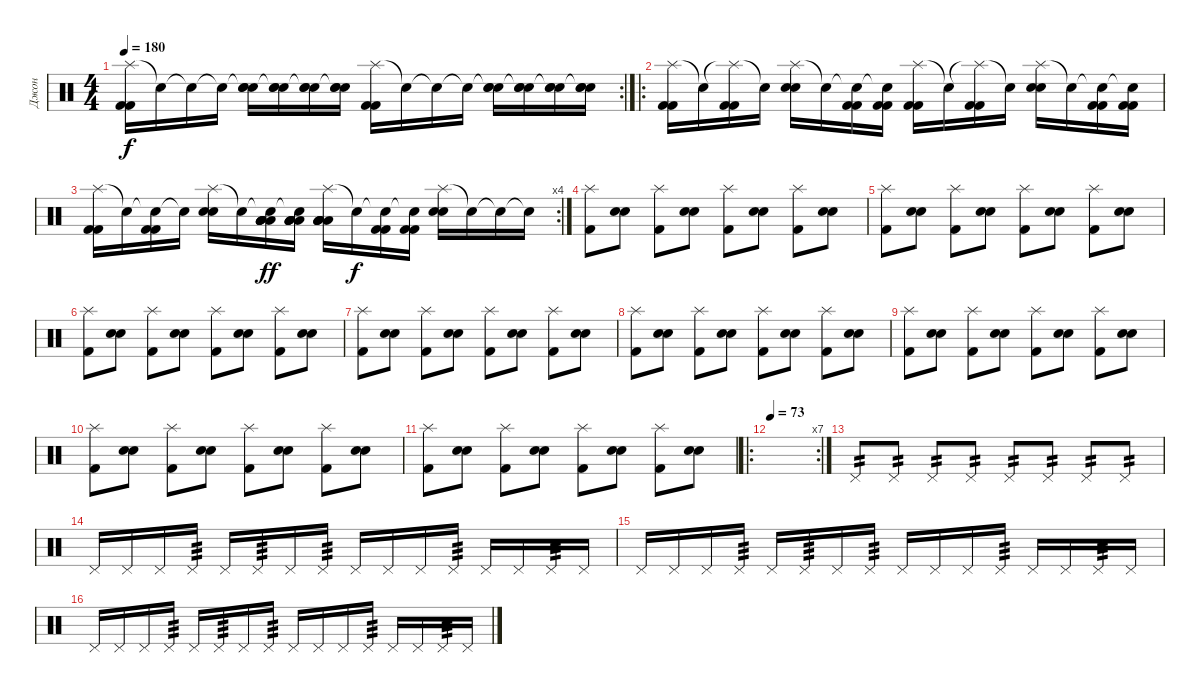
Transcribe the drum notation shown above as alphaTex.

\track ("Джон" "Джон") {instrument percussion}
\staff {score}
\articulation defaults
\rc 2
\ts (4 4)
\tempo 180
\clef neutral
\ks c
("Splash (hit)" "Kick (hit) 2" "Kick (hit) 2").16{dy f} "Snare (hit)"{t}.16 "Snare (hit)"{t}.16 "Snare (hit)"{t}.16 ("Snare (hit)"{t} "Electric Snare (hit)" "Electric Snare (hit)").16 ("Snare (hit)"{t} "Electric Snare (hit)" "Electric Snare (hit)").16 ("Snare (hit)"{t} "Electric Snare (hit)" "Electric Snare (hit)").16 ("Snare (hit)"{t} "Electric Snare (hit)" "Electric Snare (hit)").16 ("Splash (hit)" "Kick (hit) 2" "Kick (hit) 2").16 "Snare (hit)"{t}.16 "Snare (hit)"{t}.16 "Snare (hit)"{t}.16 ("Snare (hit)"{t} "Electric Snare (hit)" "Electric Snare (hit)").16 ("Snare (hit)"{t} "Electric Snare (hit)" "Electric Snare (hit)").16 ("Snare (hit)"{t} "Electric Snare (hit)" "Electric Snare (hit)").16 ("Snare (hit)"{t} "Electric Snare (hit)" "Electric Snare (hit)").16 |
\ro
("Splash (hit)" "Kick (hit) 2" "Kick (hit) 2").16 "Snare (hit)"{t}.16 ("Splash (hit)"{t} "Kick (hit) 2" "Kick (hit) 2").16 "Snare (hit)"{t}.16 ("Splash (hit)" "Electric Snare (hit)" "Electric Snare (hit)").16 "Snare (hit)"{t}.16 ("Snare (hit)"{t} "Kick (hit) 2" "Kick (hit) 2").16 ("Snare (hit)"{t} "Kick (hit) 2" "Kick (hit) 2").16 ("Splash (hit)" "Kick (hit) 2" "Kick (hit) 2").16 "Snare (hit)"{t}.16 ("Splash (hit)"{t} "Kick (hit) 2" "Kick (hit) 2").16 "Snare (hit)"{t}.16 ("Splash (hit)" "Electric Snare (hit)" "Electric Snare (hit)").16 "Snare (hit)"{t}.16 ("Snare (hit)"{t} "Kick (hit) 2" "Kick (hit) 2").16 ("Snare (hit)"{t} "Kick (hit) 2" "Kick (hit) 2").16 |
\rc 4
("Splash (hit)" "Kick (hit) 2" "Kick (hit) 2").16 "Snare (hit)"{t}.16 ("Snare (hit)"{t} "Kick (hit) 2" "Kick (hit) 2").16 "Snare (hit)"{t}.16 ("Splash (hit)" "Electric Snare (hit)" "Electric Snare (hit)").16 "Snare (hit)"{t}.16 ("Snare (hit)"{t} "Low Tom (hit)" "Low Tom (hit)" "Low Tom (hit)" "Low Tom (hit)" "Low Tom (hit)").16{dy ff} ("Snare (hit)"{t} "Low Tom (hit)" "Low Tom (hit)" "Low Tom (hit)" "Low Tom (hit)" "Low Tom (hit)").16 ("Splash (hit)" "Low Tom (hit)" "Low Tom (hit)" "Low Tom (hit)" "Low Tom (hit)" "Low Tom (hit)").16 "Snare (hit)"{t}.16{dy f} ("Snare (hit)"{t} "Kick (hit) 2" "Kick (hit) 2").16 ("Snare (hit)"{t} "Kick (hit) 2" "Kick (hit) 2").16 ("Splash (hit)" "Electric Snare (hit)" "Electric Snare (hit)").16 "Snare (hit)"{t}.16 "Snare (hit)"{t}.16 "Snare (hit)"{t}.16 |
("Splash (hit)" "Kick (hit) 2").8 ("Snare (hit)" "Electric Snare (hit)").8 ("Splash (hit)" "Kick (hit) 2").8 ("Snare (hit)" "Electric Snare (hit)").8 ("Splash (hit)" "Kick (hit) 2").8 ("Snare (hit)" "Electric Snare (hit)").8 ("Splash (hit)" "Kick (hit) 2").8 ("Snare (hit)" "Electric Snare (hit)").8 |
("Splash (hit)" "Kick (hit) 2").8 ("Snare (hit)" "Electric Snare (hit)").8 ("Splash (hit)" "Kick (hit) 2").8 ("Snare (hit)" "Electric Snare (hit)").8 ("Splash (hit)" "Kick (hit) 2").8 ("Snare (hit)" "Electric Snare (hit)").8 ("Splash (hit)" "Kick (hit) 2").8 ("Snare (hit)" "Electric Snare (hit)").8 |
("Splash (hit)" "Kick (hit) 2").8 ("Snare (hit)" "Electric Snare (hit)").8 ("Splash (hit)" "Kick (hit) 2").8 ("Snare (hit)" "Electric Snare (hit)").8 ("Splash (hit)" "Kick (hit) 2").8 ("Snare (hit)" "Electric Snare (hit)").8 ("Splash (hit)" "Kick (hit) 2").8 ("Snare (hit)" "Electric Snare (hit)").8 |
("Splash (hit)" "Kick (hit) 2").8 ("Snare (hit)" "Electric Snare (hit)").8 ("Splash (hit)" "Kick (hit) 2").8 ("Snare (hit)" "Electric Snare (hit)").8 ("Splash (hit)" "Kick (hit) 2").8 ("Snare (hit)" "Electric Snare (hit)").8 ("Splash (hit)" "Kick (hit) 2").8 ("Snare (hit)" "Electric Snare (hit)").8 |
("Splash (hit)" "Kick (hit) 2").8 ("Snare (hit)" "Electric Snare (hit)").8 ("Splash (hit)" "Kick (hit) 2").8 ("Snare (hit)" "Electric Snare (hit)").8 ("Splash (hit)" "Kick (hit) 2").8 ("Snare (hit)" "Electric Snare (hit)").8 ("Splash (hit)" "Kick (hit) 2").8 ("Snare (hit)" "Electric Snare (hit)").8 |
("Splash (hit)" "Kick (hit) 2").8 ("Snare (hit)" "Electric Snare (hit)").8 ("Splash (hit)" "Kick (hit) 2").8 ("Snare (hit)" "Electric Snare (hit)").8 ("Splash (hit)" "Kick (hit) 2").8 ("Snare (hit)" "Electric Snare (hit)").8 ("Splash (hit)" "Kick (hit) 2").8 ("Snare (hit)" "Electric Snare (hit)").8 |
("Splash (hit)" "Kick (hit) 2").8 ("Snare (hit)" "Electric Snare (hit)").8 ("Splash (hit)" "Kick (hit) 2").8 ("Snare (hit)" "Electric Snare (hit)").8 ("Splash (hit)" "Kick (hit) 2").8 ("Snare (hit)" "Electric Snare (hit)").8 ("Splash (hit)" "Kick (hit) 2").8 ("Snare (hit)" "Electric Snare (hit)").8 |
("Splash (hit)" "Kick (hit) 2").8 ("Snare (hit)" "Electric Snare (hit)").8 ("Splash (hit)" "Kick (hit) 2").8 ("Snare (hit)" "Electric Snare (hit)").8 ("Splash (hit)" "Kick (hit) 2").8 ("Snare (hit)" "Electric Snare (hit)").8 ("Splash (hit)" "Kick (hit) 2").8 ("Snare (hit)" "Electric Snare (hit)").8 |
\ro
\rc 7
\tempo 73
|
"Pedal Hi-Hat (hit)".8{tp 2} "Pedal Hi-Hat (hit)".8{tp 2} "Pedal Hi-Hat (hit)".8{tp 2} "Pedal Hi-Hat (hit)".8{tp 2} "Pedal Hi-Hat (hit)".8{tp 2} "Pedal Hi-Hat (hit)".8{tp 2} "Pedal Hi-Hat (hit)".8{tp 2} "Pedal Hi-Hat (hit)".8{tp 2} |
"Pedal Hi-Hat (hit)".16 "Pedal Hi-Hat (hit)".16 "Pedal Hi-Hat (hit)".16 "Pedal Hi-Hat (hit)".16{tp 3} "Pedal Hi-Hat (hit)".16 "Pedal Hi-Hat (hit)".16{tp 3} "Pedal Hi-Hat (hit)".16 "Pedal Hi-Hat (hit)".16{tp 3} "Pedal Hi-Hat (hit)".16 "Pedal Hi-Hat (hit)".16 "Pedal Hi-Hat (hit)".16 "Pedal Hi-Hat (hit)".16{tp 3} "Pedal Hi-Hat (hit)".16 "Pedal Hi-Hat (hit)".16 "Pedal Hi-Hat (hit)".16{tp 3} "Pedal Hi-Hat (hit)".16 |
"Pedal Hi-Hat (hit)".16 "Pedal Hi-Hat (hit)".16 "Pedal Hi-Hat (hit)".16 "Pedal Hi-Hat (hit)".16{tp 3} "Pedal Hi-Hat (hit)".16 "Pedal Hi-Hat (hit)".16{tp 3} "Pedal Hi-Hat (hit)".16 "Pedal Hi-Hat (hit)".16{tp 3} "Pedal Hi-Hat (hit)".16 "Pedal Hi-Hat (hit)".16 "Pedal Hi-Hat (hit)".16 "Pedal Hi-Hat (hit)".16{tp 3} "Pedal Hi-Hat (hit)".16 "Pedal Hi-Hat (hit)".16 "Pedal Hi-Hat (hit)".16{tp 3} "Pedal Hi-Hat (hit)".16 |
"Pedal Hi-Hat (hit)".16 "Pedal Hi-Hat (hit)".16 "Pedal Hi-Hat (hit)".16 "Pedal Hi-Hat (hit)".16{tp 3} "Pedal Hi-Hat (hit)".16 "Pedal Hi-Hat (hit)".16{tp 3} "Pedal Hi-Hat (hit)".16 "Pedal Hi-Hat (hit)".16{tp 3} "Pedal Hi-Hat (hit)".16 "Pedal Hi-Hat (hit)".16 "Pedal Hi-Hat (hit)".16 "Pedal Hi-Hat (hit)".16{tp 3} "Pedal Hi-Hat (hit)".16 "Pedal Hi-Hat (hit)".16 "Pedal Hi-Hat (hit)".16{tp 3} "Pedal Hi-Hat (hit)".16
